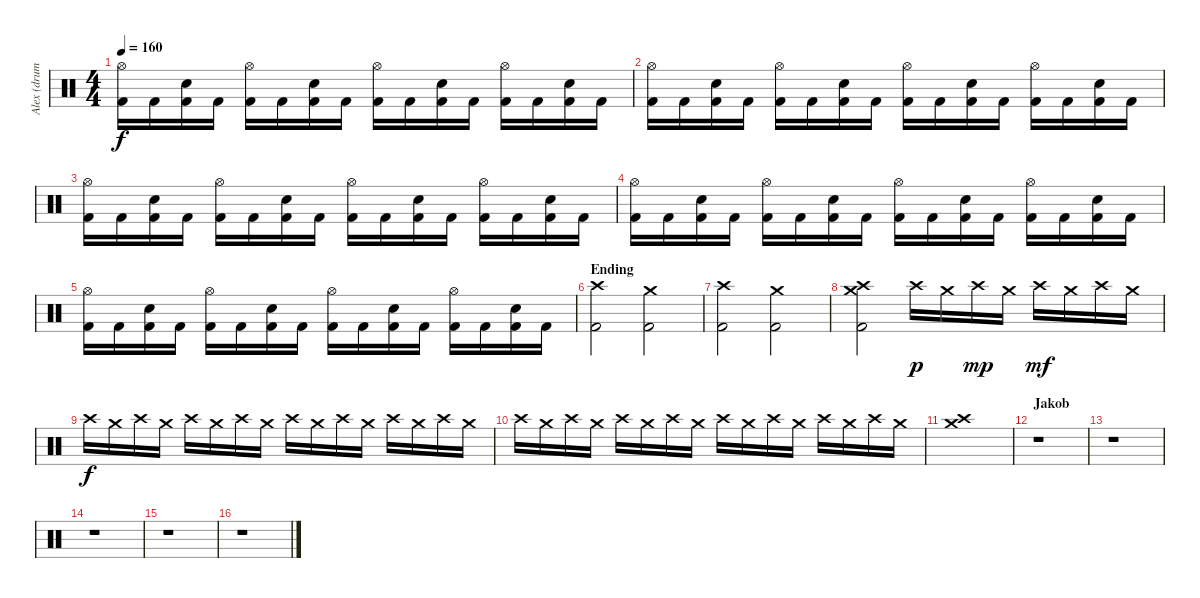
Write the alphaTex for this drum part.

\track ("Alex (drums)" "Alex (drum") {instrument percussion}
\staff {score}
\articulation defaults
\ts (4 4)
\tempo 160
\clef neutral
\ks c
("Hi-Hat (open)" "Kick (hit) 2").16{dy f} "Kick (hit) 2".16 ("Snare (hit) 2" "Kick (hit) 2").16 "Kick (hit) 2".16 ("Hi-Hat (open)" "Kick (hit) 2").16 "Kick (hit) 2".16 ("Snare (hit) 2" "Kick (hit) 2").16 "Kick (hit) 2".16 ("Hi-Hat (open)" "Kick (hit) 2").16 "Kick (hit) 2".16 ("Snare (hit) 2" "Kick (hit) 2").16 "Kick (hit) 2".16 ("Hi-Hat (open)" "Kick (hit) 2").16 "Kick (hit) 2".16 ("Snare (hit) 2" "Kick (hit) 2").16 "Kick (hit) 2".16 |
("Hi-Hat (open)" "Kick (hit) 2").16 "Kick (hit) 2".16 ("Snare (hit) 2" "Kick (hit) 2").16 "Kick (hit) 2".16 ("Hi-Hat (open)" "Kick (hit) 2").16 "Kick (hit) 2".16 ("Snare (hit) 2" "Kick (hit) 2").16 "Kick (hit) 2".16 ("Hi-Hat (open)" "Kick (hit) 2").16 "Kick (hit) 2".16 ("Snare (hit) 2" "Kick (hit) 2").16 "Kick (hit) 2".16 ("Hi-Hat (open)" "Kick (hit) 2").16 "Kick (hit) 2".16 ("Snare (hit) 2" "Kick (hit) 2").16 "Kick (hit) 2".16 |
("Hi-Hat (open)" "Kick (hit) 2").16 "Kick (hit) 2".16 ("Snare (hit) 2" "Kick (hit) 2").16 "Kick (hit) 2".16 ("Hi-Hat (open)" "Kick (hit) 2").16 "Kick (hit) 2".16 ("Snare (hit) 2" "Kick (hit) 2").16 "Kick (hit) 2".16 ("Hi-Hat (open)" "Kick (hit) 2").16 "Kick (hit) 2".16 ("Snare (hit) 2" "Kick (hit) 2").16 "Kick (hit) 2".16 ("Hi-Hat (open)" "Kick (hit) 2").16 "Kick (hit) 2".16 ("Snare (hit) 2" "Kick (hit) 2").16 "Kick (hit) 2".16 |
("Hi-Hat (open)" "Kick (hit) 2").16 "Kick (hit) 2".16 ("Snare (hit) 2" "Kick (hit) 2").16 "Kick (hit) 2".16 ("Hi-Hat (open)" "Kick (hit) 2").16 "Kick (hit) 2".16 ("Snare (hit) 2" "Kick (hit) 2").16 "Kick (hit) 2".16 ("Hi-Hat (open)" "Kick (hit) 2").16 "Kick (hit) 2".16 ("Snare (hit) 2" "Kick (hit) 2").16 "Kick (hit) 2".16 ("Hi-Hat (open)" "Kick (hit) 2").16 "Kick (hit) 2".16 ("Snare (hit) 2" "Kick (hit) 2").16 "Kick (hit) 2".16 |
("Hi-Hat (open)" "Kick (hit) 2").16 "Kick (hit) 2".16 ("Snare (hit) 2" "Kick (hit) 2").16 "Kick (hit) 2".16 ("Hi-Hat (open)" "Kick (hit) 2").16 "Kick (hit) 2".16 ("Snare (hit) 2" "Kick (hit) 2").16 "Kick (hit) 2".16 ("Hi-Hat (open)" "Kick (hit) 2").16 "Kick (hit) 2".16 ("Snare (hit) 2" "Kick (hit) 2").16 "Kick (hit) 2".16 ("Hi-Hat (open)" "Kick (hit) 2").16 "Kick (hit) 2".16 ("Snare (hit) 2" "Kick (hit) 2").16 "Kick (hit) 2".16 |
\section ("" "Ending")
("Kick (hit) 2" "Crash high (hit)").2 ("Kick (hit) 2" "Crash medium (hit)").2 |
("Kick (hit) 2" "Crash high (hit)").2 ("Kick (hit) 2" "Crash medium (hit)").2 |
("Kick (hit) 2" "Crash medium (hit)" "Crash high (hit)").2 "Crash high (hit)".16{dy p} "Crash medium (hit)".16 "Crash high (hit)".16{dy mp} "Crash medium (hit)".16 "Crash high (hit)".16{dy mf} "Crash medium (hit)".16 "Crash high (hit)".16 "Crash medium (hit)".16 |
"Crash high (hit)".16{dy f} "Crash medium (hit)".16 "Crash high (hit)".16 "Crash medium (hit)".16 "Crash high (hit)".16 "Crash medium (hit)".16 "Crash high (hit)".16 "Crash medium (hit)".16 "Crash high (hit)".16 "Crash medium (hit)".16 "Crash high (hit)".16 "Crash medium (hit)".16 "Crash high (hit)".16 "Crash medium (hit)".16 "Crash high (hit)".16 "Crash medium (hit)".16 |
"Crash high (hit)".16 "Crash medium (hit)".16 "Crash high (hit)".16 "Crash medium (hit)".16 "Crash high (hit)".16 "Crash medium (hit)".16 "Crash high (hit)".16 "Crash medium (hit)".16 "Crash high (hit)".16 "Crash medium (hit)".16 "Crash high (hit)".16 "Crash medium (hit)".16 "Crash high (hit)".16 "Crash medium (hit)".16 "Crash high (hit)".16 "Crash medium (hit)".16 |
("Crash medium (hit)" "Crash high (hit)").1 |
\section ("" "Jakob")
r.1 |
r.1 |
r.1 |
r.1 |
r.1
